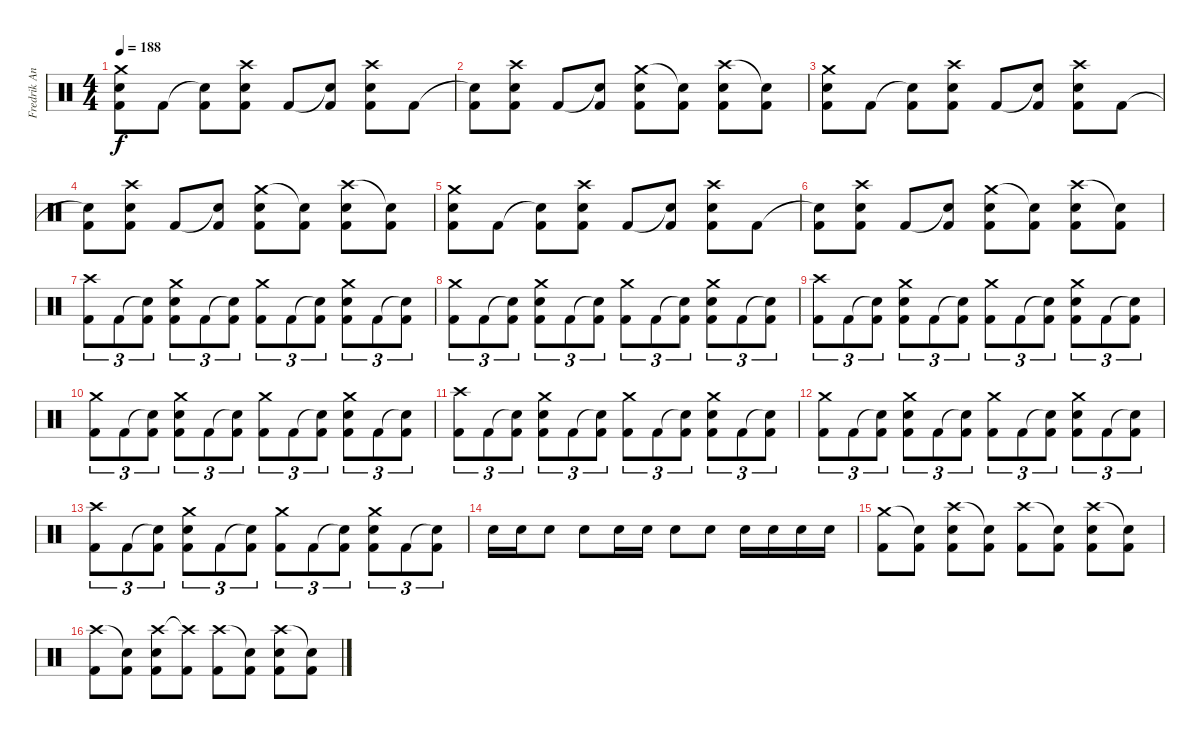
\track ("Fredrik Andersson" "Fredrik An") {instrument percussion}
\staff {score}
\articulation defaults
\ts (4 4)
\tempo 188
\clef neutral
\ks c
("Crash medium (hit)" "Snare (hit) 2" "Kick (hit) 2").8{dy f} "Kick (hit) 2".8 ("Snare (hit)"{t} "Kick (hit) 2").8 ("Crash high (hit)" "Snare (hit) 2" "Kick (hit) 2").8 "Kick (hit) 2".8 ("Snare (hit)"{t} "Kick (hit) 2").8 ("Crash high (hit)" "Snare (hit) 2" "Kick (hit) 2").8 "Kick (hit) 2".8 |
("Snare (hit)"{t} "Kick (hit) 2").8 ("Crash high (hit)" "Snare (hit) 2" "Kick (hit) 2").8 "Kick (hit) 2".8 ("Snare (hit)"{t} "Kick (hit) 2").8 ("Crash medium (hit)" "Snare (hit) 2" "Kick (hit) 2").8 ("Snare (hit)"{t} "Kick (hit) 2").8 ("Crash high (hit)" "Snare (hit) 2" "Kick (hit) 2").8 ("Snare (hit)"{t} "Kick (hit) 2").8 |
("Crash medium (hit)" "Snare (hit) 2" "Kick (hit) 2").8 "Kick (hit) 2".8 ("Snare (hit)"{t} "Kick (hit) 2").8 ("Crash high (hit)" "Snare (hit) 2" "Kick (hit) 2").8 "Kick (hit) 2".8 ("Snare (hit)"{t} "Kick (hit) 2").8 ("Crash high (hit)" "Snare (hit) 2" "Kick (hit) 2").8 "Kick (hit) 2".8 |
("Snare (hit)"{t} "Kick (hit) 2").8 ("Crash high (hit)" "Snare (hit) 2" "Kick (hit) 2").8 "Kick (hit) 2".8 ("Snare (hit)"{t} "Kick (hit) 2").8 ("Crash medium (hit)" "Snare (hit) 2" "Kick (hit) 2").8 ("Snare (hit)"{t} "Kick (hit) 2").8 ("Crash high (hit)" "Snare (hit) 2" "Kick (hit) 2").8 ("Snare (hit)"{t} "Kick (hit) 2").8 |
("Crash medium (hit)" "Snare (hit) 2" "Kick (hit) 2").8 "Kick (hit) 2".8 ("Snare (hit)"{t} "Kick (hit) 2").8 ("Crash high (hit)" "Snare (hit) 2" "Kick (hit) 2").8 "Kick (hit) 2".8 ("Snare (hit)"{t} "Kick (hit) 2").8 ("Crash high (hit)" "Snare (hit) 2" "Kick (hit) 2").8 "Kick (hit) 2".8 |
("Snare (hit)"{t} "Kick (hit) 2").8 ("Crash high (hit)" "Snare (hit) 2" "Kick (hit) 2").8 "Kick (hit) 2".8 ("Snare (hit)"{t} "Kick (hit) 2").8 ("Crash medium (hit)" "Snare (hit) 2" "Kick (hit) 2").8 ("Snare (hit)"{t} "Kick (hit) 2").8 ("Crash high (hit)" "Snare (hit) 2" "Kick (hit) 2").8 ("Snare (hit)"{t} "Kick (hit) 2").8 |
("Crash high (hit)" "Kick (hit) 2").8{tu (3 2)} "Kick (hit) 2".8{tu (3 2)} ("Snare (hit)"{t} "Kick (hit) 2").8{tu (3 2)} ("Crash medium (hit)" "Snare (hit) 2" "Kick (hit) 2").8{tu (3 2)} "Kick (hit) 2".8{tu (3 2)} ("Snare (hit)"{t} "Kick (hit) 2").8{tu (3 2)} ("Crash medium (hit)" "Kick (hit) 2").8{tu (3 2)} "Kick (hit) 2".8{tu (3 2)} ("Snare (hit)"{t} "Kick (hit) 2").8{tu (3 2)} ("Crash medium (hit)" "Snare (hit) 2" "Kick (hit) 2").8{tu (3 2)} "Kick (hit) 2".8{tu (3 2)} ("Snare (hit)"{t} "Kick (hit) 2").8{tu (3 2)} |
("Crash medium (hit)" "Kick (hit) 2").8{tu (3 2)} "Kick (hit) 2".8{tu (3 2)} ("Snare (hit)"{t} "Kick (hit) 2").8{tu (3 2)} ("Crash medium (hit)" "Snare (hit) 2" "Kick (hit) 2").8{tu (3 2)} "Kick (hit) 2".8{tu (3 2)} ("Snare (hit)"{t} "Kick (hit) 2").8{tu (3 2)} ("Crash medium (hit)" "Kick (hit) 2").8{tu (3 2)} "Kick (hit) 2".8{tu (3 2)} ("Snare (hit)"{t} "Kick (hit) 2").8{tu (3 2)} ("Crash medium (hit)" "Snare (hit) 2" "Kick (hit) 2").8{tu (3 2)} "Kick (hit) 2".8{tu (3 2)} ("Snare (hit)"{t} "Kick (hit) 2").8{tu (3 2)} |
("Crash high (hit)" "Kick (hit) 2").8{tu (3 2)} "Kick (hit) 2".8{tu (3 2)} ("Snare (hit)"{t} "Kick (hit) 2").8{tu (3 2)} ("Crash medium (hit)" "Snare (hit) 2" "Kick (hit) 2").8{tu (3 2)} "Kick (hit) 2".8{tu (3 2)} ("Snare (hit)"{t} "Kick (hit) 2").8{tu (3 2)} ("Crash medium (hit)" "Kick (hit) 2").8{tu (3 2)} "Kick (hit) 2".8{tu (3 2)} ("Snare (hit)"{t} "Kick (hit) 2").8{tu (3 2)} ("Crash medium (hit)" "Snare (hit) 2" "Kick (hit) 2").8{tu (3 2)} "Kick (hit) 2".8{tu (3 2)} ("Snare (hit)"{t} "Kick (hit) 2").8{tu (3 2)} |
("Crash medium (hit)" "Kick (hit) 2").8{tu (3 2)} "Kick (hit) 2".8{tu (3 2)} ("Snare (hit)"{t} "Kick (hit) 2").8{tu (3 2)} ("Crash medium (hit)" "Snare (hit) 2" "Kick (hit) 2").8{tu (3 2)} "Kick (hit) 2".8{tu (3 2)} ("Snare (hit)"{t} "Kick (hit) 2").8{tu (3 2)} ("Crash medium (hit)" "Kick (hit) 2").8{tu (3 2)} "Kick (hit) 2".8{tu (3 2)} ("Snare (hit)"{t} "Kick (hit) 2").8{tu (3 2)} ("Crash medium (hit)" "Snare (hit) 2" "Kick (hit) 2").8{tu (3 2)} "Kick (hit) 2".8{tu (3 2)} ("Snare (hit)"{t} "Kick (hit) 2").8{tu (3 2)} |
("Crash high (hit)" "Kick (hit) 2").8{tu (3 2)} "Kick (hit) 2".8{tu (3 2)} ("Snare (hit)"{t} "Kick (hit) 2").8{tu (3 2)} ("Crash medium (hit)" "Snare (hit) 2" "Kick (hit) 2").8{tu (3 2)} "Kick (hit) 2".8{tu (3 2)} ("Snare (hit)"{t} "Kick (hit) 2").8{tu (3 2)} ("Crash medium (hit)" "Kick (hit) 2").8{tu (3 2)} "Kick (hit) 2".8{tu (3 2)} ("Snare (hit)"{t} "Kick (hit) 2").8{tu (3 2)} ("Crash medium (hit)" "Snare (hit) 2" "Kick (hit) 2").8{tu (3 2)} "Kick (hit) 2".8{tu (3 2)} ("Snare (hit)"{t} "Kick (hit) 2").8{tu (3 2)} |
("Crash medium (hit)" "Kick (hit) 2").8{tu (3 2)} "Kick (hit) 2".8{tu (3 2)} ("Snare (hit)"{t} "Kick (hit) 2").8{tu (3 2)} ("Crash medium (hit)" "Snare (hit) 2" "Kick (hit) 2").8{tu (3 2)} "Kick (hit) 2".8{tu (3 2)} ("Snare (hit)"{t} "Kick (hit) 2").8{tu (3 2)} ("Crash medium (hit)" "Kick (hit) 2").8{tu (3 2)} "Kick (hit) 2".8{tu (3 2)} ("Snare (hit)"{t} "Kick (hit) 2").8{tu (3 2)} ("Crash medium (hit)" "Snare (hit) 2" "Kick (hit) 2").8{tu (3 2)} "Kick (hit) 2".8{tu (3 2)} ("Snare (hit)"{t} "Kick (hit) 2").8{tu (3 2)} |
("Crash high (hit)" "Kick (hit) 2").8{tu (3 2)} "Kick (hit) 2".8{tu (3 2)} ("Snare (hit)"{t} "Kick (hit) 2").8{tu (3 2)} ("Crash medium (hit)" "Snare (hit) 2" "Kick (hit) 2").8{tu (3 2)} "Kick (hit) 2".8{tu (3 2)} ("Snare (hit)"{t} "Kick (hit) 2").8{tu (3 2)} ("Crash medium (hit)" "Kick (hit) 2").8{tu (3 2)} "Kick (hit) 2".8{tu (3 2)} ("Snare (hit)"{t} "Kick (hit) 2").8{tu (3 2)} ("Crash medium (hit)" "Snare (hit) 2" "Kick (hit) 2").8{tu (3 2)} "Kick (hit) 2".8{tu (3 2)} ("Snare (hit)"{t} "Kick (hit) 2").8{tu (3 2)} |
"Snare (hit) 2".16 "Snare (hit) 2".16 "Snare (hit) 2".8 "Snare (hit) 2".8 "Snare (hit) 2".16 "Snare (hit) 2".16 "Snare (hit) 2".8 "Snare (hit) 2".8 "Snare (hit) 2".16 "Snare (hit) 2".16 "Snare (hit) 2".16 "Snare (hit) 2".16 |
("Crash medium (hit)" "Kick (hit) 2").8 ("Snare (hit)"{t} "Kick (hit) 2").8 ("Crash high (hit)" "Snare (hit) 2" "Kick (hit) 2").8 ("Snare (hit)"{t} "Kick (hit) 2").8 ("Crash high (hit)" "Kick (hit) 2").8 ("Snare (hit)"{t} "Kick (hit) 2").8 ("Crash high (hit)" "Snare (hit) 2" "Kick (hit) 2").8 ("Snare (hit)"{t} "Kick (hit) 2").8 |
("Crash high (hit)" "Kick (hit) 2").8 ("Snare (hit)"{t} "Kick (hit) 2").8 ("Crash high (hit)" "Snare (hit) 2" "Kick (hit) 2").8 ("Crash high (hit)"{t} "Kick (hit) 2").8 ("Crash high (hit)" "Kick (hit) 2").8 ("Snare (hit)"{t} "Kick (hit) 2").8 ("Crash high (hit)" "Snare (hit) 2" "Kick (hit) 2").8 ("Snare (hit)"{t} "Kick (hit) 2").8
